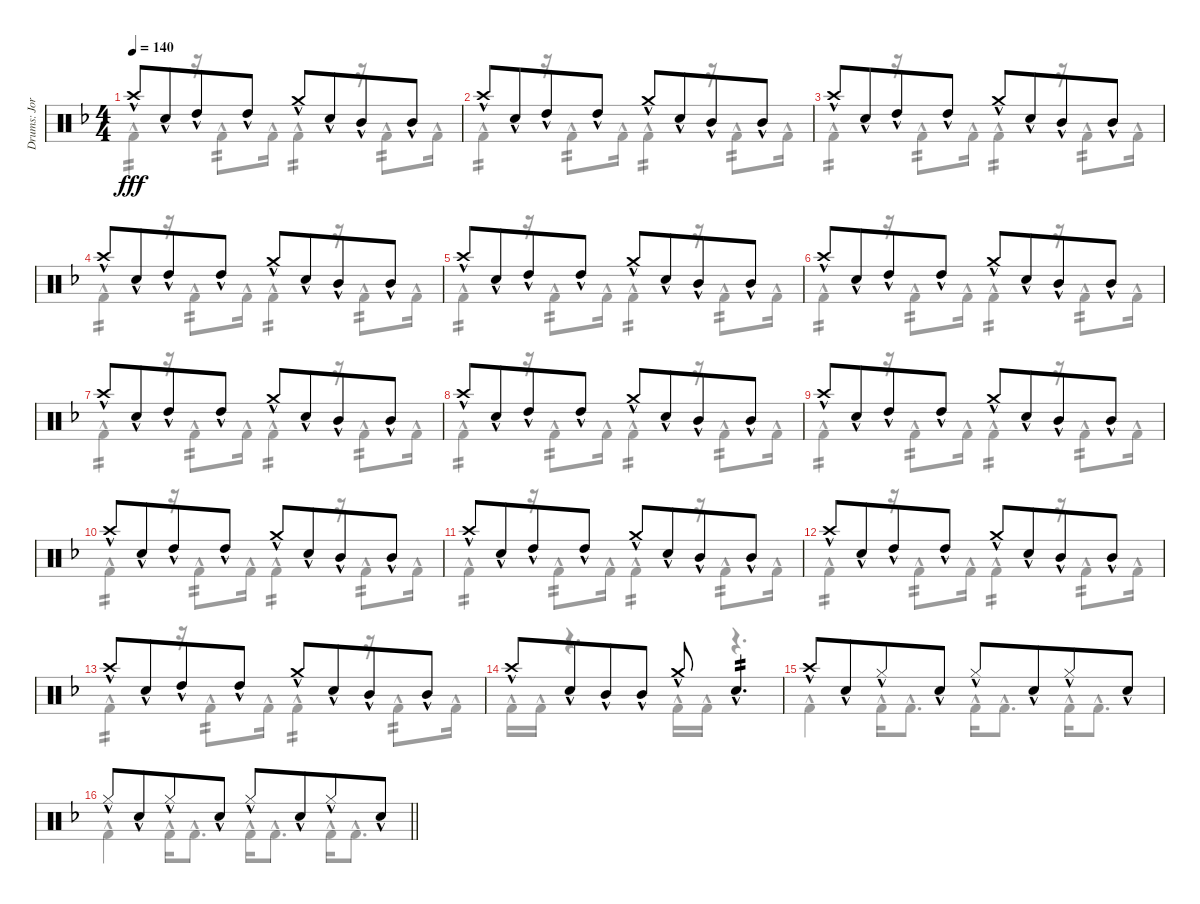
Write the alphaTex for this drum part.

\track ("Drums: Jorg" "Drums: Jor") {instrument percussion}
\staff {score}
\articulation defaults
\voice
\ts (4 4)
\tempo 140
\clef neutral
\ks f "Crash high (hit)"{hac}.8{dy fff} "Snare (hit) 2"{hac}.8{beam merge} "High Tom (hit)"{hac}.8 "High Tom (hit)"{hac}.8 "Crash medium (hit)"{hac}.8 "Snare (hit) 2"{hac}.8{beam merge} "Mid Tom (hit)"{hac}.8 "Mid Tom (hit)"{hac}.8
|
"Crash high (hit)"{hac}.8 "Snare (hit) 2"{hac}.8{beam merge} "High Tom (hit)"{hac}.8 "High Tom (hit)"{hac}.8 "Crash medium (hit)"{hac}.8 "Snare (hit) 2"{hac}.8{beam merge} "Mid Tom (hit)"{hac}.8 "Mid Tom (hit)"{hac}.8 |
"Crash high (hit)"{hac}.8 "Snare (hit) 2"{hac}.8{beam merge} "High Tom (hit)"{hac}.8 "High Tom (hit)"{hac}.8 "Crash medium (hit)"{hac}.8 "Snare (hit) 2"{hac}.8{beam merge} "Mid Tom (hit)"{hac}.8 "Mid Tom (hit)"{hac}.8 |
"Crash high (hit)"{hac}.8 "Snare (hit) 2"{hac}.8{beam merge} "High Tom (hit)"{hac}.8 "High Tom (hit)"{hac}.8 "Crash medium (hit)"{hac}.8 "Snare (hit) 2"{hac}.8{beam merge} "Mid Tom (hit)"{hac}.8 "Mid Tom (hit)"{hac}.8 |
"Crash high (hit)"{hac}.8 "Snare (hit) 2"{hac}.8{beam merge} "High Tom (hit)"{hac}.8 "High Tom (hit)"{hac}.8 "Crash medium (hit)"{hac}.8 "Snare (hit) 2"{hac}.8{beam merge} "Mid Tom (hit)"{hac}.8 "Mid Tom (hit)"{hac}.8 |
"Crash high (hit)"{hac}.8 "Snare (hit) 2"{hac}.8{beam merge} "High Tom (hit)"{hac}.8 "High Tom (hit)"{hac}.8 "Crash medium (hit)"{hac}.8 "Snare (hit) 2"{hac}.8{beam merge} "Mid Tom (hit)"{hac}.8 "Mid Tom (hit)"{hac}.8 |
"Crash high (hit)"{hac}.8 "Snare (hit) 2"{hac}.8{beam merge} "High Tom (hit)"{hac}.8 "High Tom (hit)"{hac}.8 "Crash medium (hit)"{hac}.8 "Snare (hit) 2"{hac}.8{beam merge} "Mid Tom (hit)"{hac}.8 "Mid Tom (hit)"{hac}.8 |
"Crash high (hit)"{hac}.8 "Snare (hit) 2"{hac}.8{beam merge} "High Tom (hit)"{hac}.8 "High Tom (hit)"{hac}.8 "Crash medium (hit)"{hac}.8 "Snare (hit) 2"{hac}.8{beam merge} "Mid Tom (hit)"{hac}.8 "Mid Tom (hit)"{hac}.8 |
"Crash high (hit)"{hac}.8 "Snare (hit) 2"{hac}.8{beam merge} "High Tom (hit)"{hac}.8 "High Tom (hit)"{hac}.8 "Crash medium (hit)"{hac}.8 "Snare (hit) 2"{hac}.8{beam merge} "Mid Tom (hit)"{hac}.8 "Mid Tom (hit)"{hac}.8 |
"Crash high (hit)"{hac}.8 "Snare (hit) 2"{hac}.8{beam merge} "High Tom (hit)"{hac}.8 "High Tom (hit)"{hac}.8 "Crash medium (hit)"{hac}.8 "Snare (hit) 2"{hac}.8{beam merge} "Mid Tom (hit)"{hac}.8 "Mid Tom (hit)"{hac}.8 |
"Crash high (hit)"{hac}.8 "Snare (hit) 2"{hac}.8{beam merge} "High Tom (hit)"{hac}.8 "High Tom (hit)"{hac}.8 "Crash medium (hit)"{hac}.8 "Snare (hit) 2"{hac}.8{beam merge} "Mid Tom (hit)"{hac}.8 "Mid Tom (hit)"{hac}.8 |
"Crash high (hit)"{hac}.8 "Snare (hit) 2"{hac}.8{beam merge} "High Tom (hit)"{hac}.8 "High Tom (hit)"{hac}.8 "Crash medium (hit)"{hac}.8 "Snare (hit) 2"{hac}.8{beam merge} "Mid Tom (hit)"{hac}.8 "Mid Tom (hit)"{hac}.8 |
"Crash high (hit)"{hac}.8 "Snare (hit) 2"{hac}.8{beam merge} "High Tom (hit)"{hac}.8 "High Tom (hit)"{hac}.8 "Crash medium (hit)"{hac}.8 "Snare (hit) 2"{hac}.8{beam merge} "Mid Tom (hit)"{hac}.8 "Mid Tom (hit)"{hac}.8 |
"Crash high (hit)"{hac}.8 "Snare (hit) 2"{hac}.8{beam merge} "Mid Tom (hit)"{hac}.8 "Mid Tom (hit)"{hac}.8 "Crash medium (hit)"{hac}.8 "Snare (hit) 2"{hac}.4{d tp 2} |
"Crash high (hit)"{hac}.8 "Snare (hit) 2"{hac}.8{beam merge} "Hi-Hat (closed)"{hac}.8 "Snare (hit) 2"{hac}.8 "Hi-Hat (closed)"{hac}.8 "Snare (hit) 2"{hac}.8{beam merge} "Hi-Hat (closed)"{hac}.8 "Snare (hit) 2"{hac}.8 |
\barLineRight lightlight "Hi-Hat (closed)"{hac}.8 "Snare (hit) 2"{hac}.8{beam merge} "Hi-Hat (closed)"{hac}.8 "Snare (hit) 2"{hac}.8 "Hi-Hat (closed)"{hac}.8 "Snare (hit) 2"{hac}.8{beam merge} "Hi-Hat (closed)"{hac}.8 "Snare (hit) 2"{hac}.8
\voice
\clef neutral
\ottava regular
\simile none
\ks f "Kick (hit) 2"{hac}.4{tp 2 dy fff}
r.16 "Kick (hit) 2"{hac}.8{tp 2} "Kick (hit) 2"{hac}.16 "Kick (hit) 2"{hac}.4{tp 2} r.16 "Kick (hit) 2"{hac}.8{tp 2} "Kick (hit) 2"{hac}.16 |
"Kick (hit) 2"{hac}.4{tp 2} r.16 "Kick (hit) 2"{hac}.8{tp 2} "Kick (hit) 2"{hac}.16 "Kick (hit) 2"{hac}.4{tp 2} r.16 "Kick (hit) 2"{hac}.8{tp 2} "Kick (hit) 2"{hac}.16 |
"Kick (hit) 2"{hac}.4{tp 2} r.16 "Kick (hit) 2"{hac}.8{tp 2} "Kick (hit) 2"{hac}.16 "Kick (hit) 2"{hac}.4{tp 2} r.16 "Kick (hit) 2"{hac}.8{tp 2} "Kick (hit) 2"{hac}.16 |
"Kick (hit) 2"{hac}.4{tp 2} r.16 "Kick (hit) 2"{hac}.8{tp 2} "Kick (hit) 2"{hac}.16 "Kick (hit) 2"{hac}.4{tp 2} r.16 "Kick (hit) 2"{hac}.8{tp 2} "Kick (hit) 2"{hac}.16 |
"Kick (hit) 2"{hac}.4{tp 2} r.16 "Kick (hit) 2"{hac}.8{tp 2} "Kick (hit) 2"{hac}.16 "Kick (hit) 2"{hac}.4{tp 2} r.16 "Kick (hit) 2"{hac}.8{tp 2} "Kick (hit) 2"{hac}.16 |
"Kick (hit) 2"{hac}.4{tp 2} r.16 "Kick (hit) 2"{hac}.8{tp 2} "Kick (hit) 2"{hac}.16 "Kick (hit) 2"{hac}.4{tp 2} r.16 "Kick (hit) 2"{hac}.8{tp 2} "Kick (hit) 2"{hac}.16 |
"Kick (hit) 2"{hac}.4{tp 2} r.16 "Kick (hit) 2"{hac}.8{tp 2} "Kick (hit) 2"{hac}.16 "Kick (hit) 2"{hac}.4{tp 2} r.16 "Kick (hit) 2"{hac}.8{tp 2} "Kick (hit) 2"{hac}.16 |
"Kick (hit) 2"{hac}.4{tp 2} r.16 "Kick (hit) 2"{hac}.8{tp 2} "Kick (hit) 2"{hac}.16 "Kick (hit) 2"{hac}.4{tp 2} r.16 "Kick (hit) 2"{hac}.8{tp 2} "Kick (hit) 2"{hac}.16 |
"Kick (hit) 2"{hac}.4{tp 2} r.16 "Kick (hit) 2"{hac}.8{tp 2} "Kick (hit) 2"{hac}.16 "Kick (hit) 2"{hac}.4{tp 2} r.16 "Kick (hit) 2"{hac}.8{tp 2} "Kick (hit) 2"{hac}.16 |
"Kick (hit) 2"{hac}.4{tp 2} r.16 "Kick (hit) 2"{hac}.8{tp 2} "Kick (hit) 2"{hac}.16 "Kick (hit) 2"{hac}.4{tp 2} r.16 "Kick (hit) 2"{hac}.8{tp 2} "Kick (hit) 2"{hac}.16 |
"Kick (hit) 2"{hac}.4{tp 2} r.16 "Kick (hit) 2"{hac}.8{tp 2} "Kick (hit) 2"{hac}.16 "Kick (hit) 2"{hac}.4{tp 2} r.16 "Kick (hit) 2"{hac}.8{tp 2} "Kick (hit) 2"{hac}.16 |
"Kick (hit) 2"{hac}.4{tp 2} r.16 "Kick (hit) 2"{hac}.8{tp 2} "Kick (hit) 2"{hac}.16 "Kick (hit) 2"{hac}.4{tp 2} r.16 "Kick (hit) 2"{hac}.8{tp 2} "Kick (hit) 2"{hac}.16 |
"Kick (hit) 2"{hac}.4{tp 2} r.16 "Kick (hit) 2"{hac}.8{tp 2} "Kick (hit) 2"{hac}.16 "Kick (hit) 2"{hac}.4{tp 2} r.16 "Kick (hit) 2"{hac}.8{tp 2} "Kick (hit) 2"{hac}.16 |
"Kick (hit) 2"{hac}.16 "Kick (hit) 2"{hac}.16 r.4{d} "Kick (hit) 2"{hac}.16 "Kick (hit) 2"{hac}.16 r.4{d} |
"Kick (hit) 2"{hac}.4 "Kick (hit) 2"{hac}.16 "Kick (hit) 2"{hac}.8{d} "Kick (hit) 2"{hac}.16 "Kick (hit) 2"{hac}.8{d} "Kick (hit) 2"{hac}.16 "Kick (hit) 2"{hac}.8{d} |
\barLineRight lightlight "Kick (hit) 2"{hac}.4 "Kick (hit) 2"{hac}.16 "Kick (hit) 2"{hac}.8{d} "Kick (hit) 2"{hac}.16 "Kick (hit) 2"{hac}.8{d} "Kick (hit) 2"{hac}.16 "Kick (hit) 2"{hac}.8{d}
